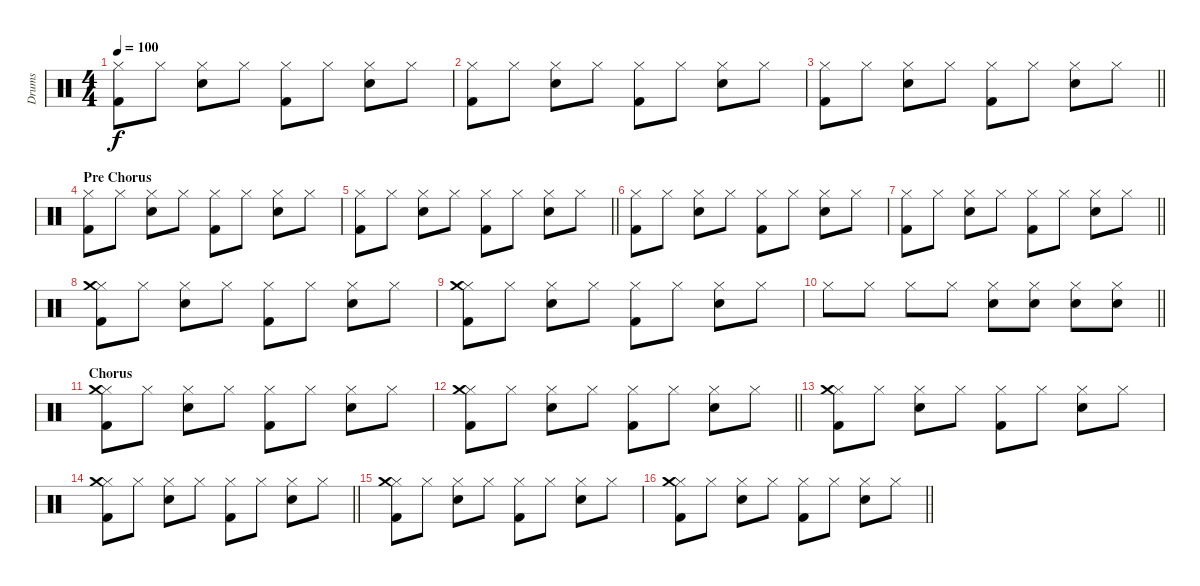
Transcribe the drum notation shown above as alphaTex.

\track ("Drums" "Drums") {instrument percussion}
\staff {score}
\articulation defaults
\ts (4 4)
\tempo 100
\clef neutral
\ks c
("Hi-Hat (closed)" "Kick (hit) 2").8{dy f} "Hi-Hat (closed)".8 ("Hi-Hat (closed)" "Snare (hit) 2").8 "Hi-Hat (closed)".8 ("Hi-Hat (closed)" "Kick (hit) 2").8 "Hi-Hat (closed)".8 ("Hi-Hat (closed)" "Snare (hit) 2").8 "Hi-Hat (closed)".8 |
("Hi-Hat (closed)" "Kick (hit) 2").8 "Hi-Hat (closed)".8 ("Hi-Hat (closed)" "Snare (hit) 2").8 "Hi-Hat (closed)".8 ("Hi-Hat (closed)" "Kick (hit) 2").8 "Hi-Hat (closed)".8 ("Hi-Hat (closed)" "Snare (hit) 2").8 "Hi-Hat (closed)".8 |
\barLineRight lightlight
("Hi-Hat (closed)" "Kick (hit) 2").8 "Hi-Hat (closed)".8 ("Hi-Hat (closed)" "Snare (hit) 2").8 "Hi-Hat (closed)".8 ("Hi-Hat (closed)" "Kick (hit) 2").8 "Hi-Hat (closed)".8 ("Hi-Hat (closed)" "Snare (hit) 2").8 "Hi-Hat (closed)".8 |
\section ("" "Pre Chorus")
("Hi-Hat (closed)" "Kick (hit) 2").8 "Hi-Hat (closed)".8 ("Hi-Hat (closed)" "Snare (hit) 2").8 "Hi-Hat (closed)".8 ("Hi-Hat (closed)" "Kick (hit) 2").8 "Hi-Hat (closed)".8 ("Hi-Hat (closed)" "Snare (hit) 2").8 "Hi-Hat (closed)".8 |
\barLineRight lightlight
("Hi-Hat (closed)" "Kick (hit) 2").8 "Hi-Hat (closed)".8 ("Hi-Hat (closed)" "Snare (hit) 2").8 "Hi-Hat (closed)".8 ("Hi-Hat (closed)" "Kick (hit) 2").8 "Hi-Hat (closed)".8 ("Hi-Hat (closed)" "Snare (hit) 2").8 "Hi-Hat (closed)".8 |
("Hi-Hat (closed)" "Kick (hit) 2").8 "Hi-Hat (closed)".8 ("Hi-Hat (closed)" "Snare (hit) 2").8 "Hi-Hat (closed)".8 ("Hi-Hat (closed)" "Kick (hit) 2").8 "Hi-Hat (closed)".8 ("Hi-Hat (closed)" "Snare (hit) 2").8 "Hi-Hat (closed)".8 |
\barLineRight lightlight
("Hi-Hat (closed)" "Kick (hit) 2").8 "Hi-Hat (closed)".8 ("Hi-Hat (closed)" "Snare (hit) 2").8 "Hi-Hat (closed)".8 ("Hi-Hat (closed)" "Kick (hit) 2").8 "Hi-Hat (closed)".8 ("Hi-Hat (closed)" "Snare (hit) 2").8 "Hi-Hat (closed)".8 |
("Hi-Hat (closed)" "Kick (hit) 2" "Crash medium (hit)").8 "Hi-Hat (closed)".8 ("Hi-Hat (closed)" "Snare (hit) 2").8 "Hi-Hat (closed)".8 ("Hi-Hat (closed)" "Kick (hit) 2").8 "Hi-Hat (closed)".8 ("Hi-Hat (closed)" "Snare (hit) 2").8 "Hi-Hat (closed)".8 |
("Hi-Hat (closed)" "Kick (hit) 2" "Crash medium (hit)").8 "Hi-Hat (closed)".8 ("Hi-Hat (closed)" "Snare (hit) 2").8 "Hi-Hat (closed)".8 ("Hi-Hat (closed)" "Kick (hit) 2").8 "Hi-Hat (closed)".8 ("Hi-Hat (closed)" "Snare (hit) 2").8 "Hi-Hat (closed)".8 |
\barLineRight lightlight "Hi-Hat (closed)".8 "Hi-Hat (closed)".8 "Hi-Hat (closed)".8 "Hi-Hat (closed)".8
("Hi-Hat (closed)" "Snare (hit) 2").8 ("Hi-Hat (closed)" "Snare (hit) 2").8 ("Hi-Hat (closed)" "Snare (hit) 2").8 ("Hi-Hat (closed)" "Snare (hit) 2").8 |
\section ("" "Chorus")
("Hi-Hat (closed)" "Kick (hit) 2" "Crash medium (hit)").8 "Hi-Hat (closed)".8 ("Hi-Hat (closed)" "Snare (hit) 2").8 "Hi-Hat (closed)".8 ("Hi-Hat (closed)" "Kick (hit) 2").8 "Hi-Hat (closed)".8 ("Hi-Hat (closed)" "Snare (hit) 2").8 "Hi-Hat (closed)".8 |
\barLineRight lightlight
("Hi-Hat (closed)" "Kick (hit) 2" "Crash medium (hit)").8 "Hi-Hat (closed)".8 ("Hi-Hat (closed)" "Snare (hit) 2").8 "Hi-Hat (closed)".8 ("Hi-Hat (closed)" "Kick (hit) 2").8 "Hi-Hat (closed)".8 ("Hi-Hat (closed)" "Snare (hit) 2").8 "Hi-Hat (closed)".8 |
("Hi-Hat (closed)" "Kick (hit) 2" "Crash medium (hit)").8 "Hi-Hat (closed)".8 ("Hi-Hat (closed)" "Snare (hit) 2").8 "Hi-Hat (closed)".8 ("Hi-Hat (closed)" "Kick (hit) 2").8 "Hi-Hat (closed)".8 ("Hi-Hat (closed)" "Snare (hit) 2").8 "Hi-Hat (closed)".8 |
\barLineRight lightlight
("Hi-Hat (closed)" "Kick (hit) 2" "Crash medium (hit)").8 "Hi-Hat (closed)".8 ("Hi-Hat (closed)" "Snare (hit) 2").8 "Hi-Hat (closed)".8 ("Hi-Hat (closed)" "Kick (hit) 2").8 "Hi-Hat (closed)".8 ("Hi-Hat (closed)" "Snare (hit) 2").8 "Hi-Hat (closed)".8 |
("Hi-Hat (closed)" "Kick (hit) 2" "Crash medium (hit)").8 "Hi-Hat (closed)".8 ("Hi-Hat (closed)" "Snare (hit) 2").8 "Hi-Hat (closed)".8 ("Hi-Hat (closed)" "Kick (hit) 2").8 "Hi-Hat (closed)".8 ("Hi-Hat (closed)" "Snare (hit) 2").8 "Hi-Hat (closed)".8 |
\barLineRight lightlight
("Hi-Hat (closed)" "Kick (hit) 2" "Crash medium (hit)").8 "Hi-Hat (closed)".8 ("Hi-Hat (closed)" "Snare (hit) 2").8 "Hi-Hat (closed)".8 ("Hi-Hat (closed)" "Kick (hit) 2").8 "Hi-Hat (closed)".8 ("Hi-Hat (closed)" "Snare (hit) 2").8 "Hi-Hat (closed)".8
